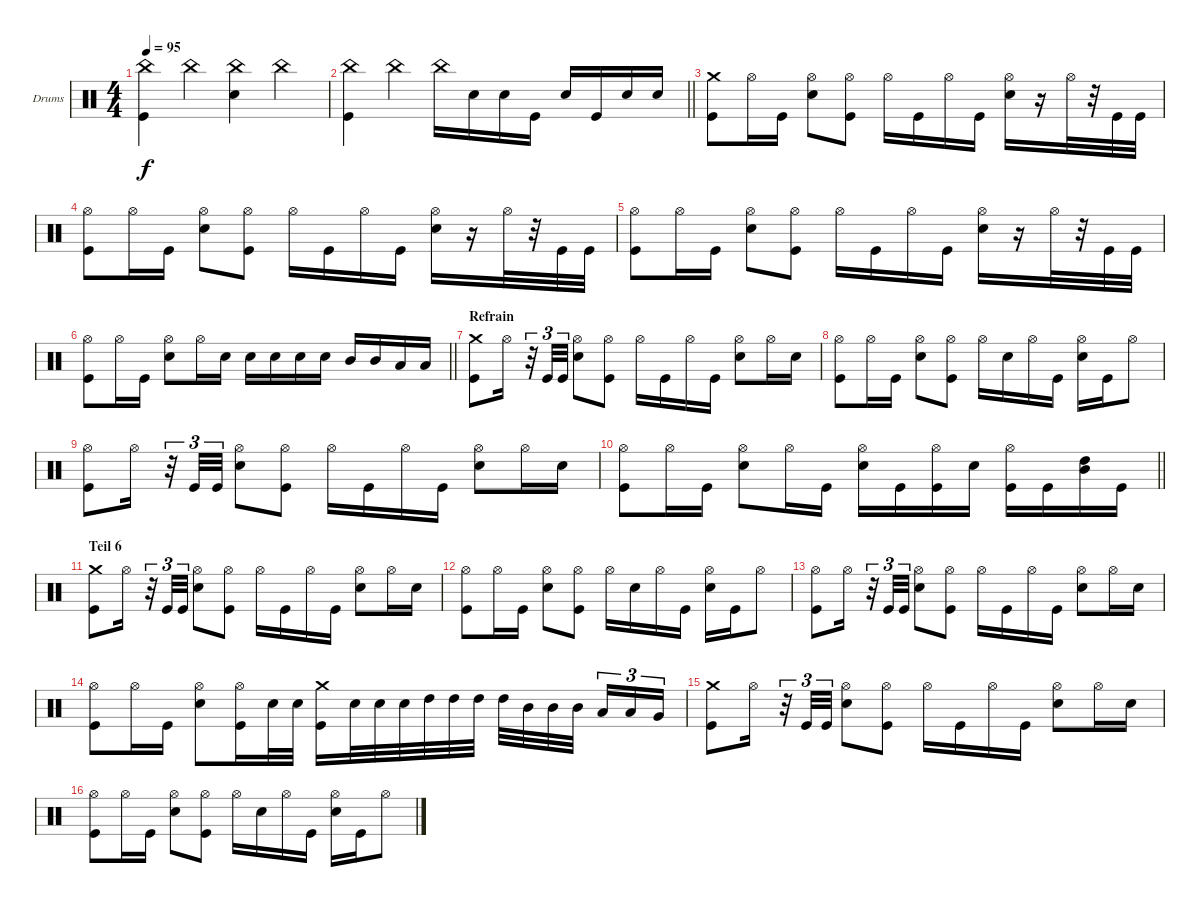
\bracketExtendMode groupsimilarinstruments
\firstSystemTrackNameOrientation horizontal
\otherSystemsTrackNameOrientation horizontal
\track ("Drumkit" "Drums") {instrument percussion}
\staff {score}
\articulation defaults
\ts (4 4)
\tempo 95
\clef neutral
\ks c
("China (hit)" "Kick (hit)").4{dy f} "China (hit)".4 ("China (hit)" "Snare (hit) 2").4 "China (hit)".4 |
\barLineRight lightlight
("China (hit)" "Kick (hit)").4 "China (hit)".4 "China (hit)".16 "Snare (hit) 2".16 "Snare (hit) 2".16 "Kick (hit)".16 "Snare (hit) 2".16 "Kick (hit)".16 "Snare (hit) 2".16 "Snare (hit) 2".16 |
("Crash medium (hit)" "Kick (hit)").8 "Hi-Hat (open)".16 "Kick (hit)".16 ("Hi-Hat (open)" "Snare (hit) 2").8 ("Hi-Hat (open)" "Kick (hit)").8 "Hi-Hat (open)".16 "Kick (hit)".16 "Hi-Hat (open)".16 "Kick (hit)".16 ("Hi-Hat (open)" "Snare (hit) 2").16 r.16 "Hi-Hat (open)".32 r.32 "Kick (hit)".32 "Kick (hit)".32 |
("Hi-Hat (open)" "Kick (hit)").8 "Hi-Hat (open)".16 "Kick (hit)".16 ("Hi-Hat (open)" "Snare (hit) 2").8 ("Hi-Hat (open)" "Kick (hit)").8 "Hi-Hat (open)".16 "Kick (hit)".16 "Hi-Hat (open)".16 "Kick (hit)".16 ("Hi-Hat (open)" "Snare (hit) 2").16 r.16 "Hi-Hat (open)".32 r.32 "Kick (hit)".32 "Kick (hit)".32 |
("Hi-Hat (open)" "Kick (hit)").8 "Hi-Hat (open)".16 "Kick (hit)".16 ("Hi-Hat (open)" "Snare (hit) 2").8 ("Hi-Hat (open)" "Kick (hit)").8 "Hi-Hat (open)".16 "Kick (hit)".16 "Hi-Hat (open)".16 "Kick (hit)".16 ("Hi-Hat (open)" "Snare (hit) 2").16 r.16 "Hi-Hat (open)".32 r.32 "Kick (hit)".32 "Kick (hit)".32 |
\barLineRight lightlight
("Hi-Hat (open)" "Kick (hit)").8 "Hi-Hat (open)".16 "Kick (hit)".16 ("Hi-Hat (open)" "Snare (hit) 2").8 "Hi-Hat (open)".16 "Snare (hit) 2".16 "Snare (hit) 2".16 "Snare (hit) 2".16 "Snare (hit) 2".16 "Snare (hit) 2".16 "Mid Tom (hit)".16 "Mid Tom (hit)".16 "Low Tom (hit)".16 "Low Tom (hit)".16 |
\section ("" "Refrain")
("Crash medium (hit)" "Kick (hit)").8 "Hi-Hat (open)".16 r.32{tu (3 2)} "Kick (hit)".32{tu (3 2)} "Kick (hit)".32{tu (3 2)} ("Hi-Hat (open)" "Snare (hit) 2").8 ("Hi-Hat (open)" "Kick (hit)").8 "Hi-Hat (open)".16 "Kick (hit)".16 "Hi-Hat (open)".16 "Kick (hit)".16 ("Hi-Hat (open)" "Snare (hit) 2").8 "Hi-Hat (open)".16 "Snare (hit) 2".16 |
("Hi-Hat (open)" "Kick (hit)").8 "Hi-Hat (open)".16 "Kick (hit)".16 ("Hi-Hat (open)" "Snare (hit) 2").8 ("Hi-Hat (open)" "Kick (hit)").8 "Hi-Hat (open)".16 "Snare (hit) 2".16 "Hi-Hat (open)".16 "Kick (hit)".16 ("Hi-Hat (open)" "Snare (hit) 2").16 "Kick (hit)".16 "Hi-Hat (open)".8 |
("Hi-Hat (open)" "Kick (hit)").8 "Hi-Hat (open)".16 r.32{tu (3 2)} "Kick (hit)".32{tu (3 2)} "Kick (hit)".32{tu (3 2)} ("Hi-Hat (open)" "Snare (hit) 2").8 ("Hi-Hat (open)" "Kick (hit)").8 "Hi-Hat (open)".16 "Kick (hit)".16 "Hi-Hat (open)".16 "Kick (hit)".16 ("Hi-Hat (open)" "Snare (hit) 2").8 "Hi-Hat (open)".16 "Snare (hit) 2".16 |
\barLineRight lightlight
("Hi-Hat (open)" "Kick (hit)").8 "Hi-Hat (open)".16 "Kick (hit)".16 ("Hi-Hat (open)" "Snare (hit) 2").8 "Hi-Hat (open)".16 "Kick (hit)".16 ("Hi-Hat (open)" "Snare (hit) 2").16 "Kick (hit)".16 ("Hi-Hat (open)" "Kick (hit)").16 "Snare (hit) 2".16 ("Hi-Hat (open)" "Kick (hit)").16 "Kick (hit)".16 ("High Tom (hit)" "Mid Tom (hit)").16 "Kick (hit)".16 |
\section ("" "Teil 6")
("Crash medium (hit)" "Kick (hit)").8 "Hi-Hat (open)".16 r.32{tu (3 2)} "Kick (hit)".32{tu (3 2)} "Kick (hit)".32{tu (3 2)} ("Hi-Hat (open)" "Snare (hit) 2").8 ("Hi-Hat (open)" "Kick (hit)").8 "Hi-Hat (open)".16 "Kick (hit)".16 "Hi-Hat (open)".16 "Kick (hit)".16 ("Hi-Hat (open)" "Snare (hit) 2").8 "Hi-Hat (open)".16 "Snare (hit) 2".16 |
("Hi-Hat (open)" "Kick (hit)").8 "Hi-Hat (open)".16 "Kick (hit)".16 ("Hi-Hat (open)" "Snare (hit) 2").8 ("Hi-Hat (open)" "Kick (hit)").8 "Hi-Hat (open)".16 "Snare (hit) 2".16 "Hi-Hat (open)".16 "Kick (hit)".16 ("Hi-Hat (open)" "Snare (hit) 2").16 "Kick (hit)".16 "Hi-Hat (open)".8 |
("Hi-Hat (open)" "Kick (hit)").8 "Hi-Hat (open)".16 r.32{tu (3 2)} "Kick (hit)".32{tu (3 2)} "Kick (hit)".32{tu (3 2)} ("Hi-Hat (open)" "Snare (hit) 2").8 ("Hi-Hat (open)" "Kick (hit)").8 "Hi-Hat (open)".16 "Kick (hit)".16 "Hi-Hat (open)".16 "Kick (hit)".16 ("Hi-Hat (open)" "Snare (hit) 2").8 "Hi-Hat (open)".16 "Snare (hit) 2".16 |
("Hi-Hat (open)" "Kick (hit)").8 "Hi-Hat (open)".16 "Kick (hit)".16 ("Hi-Hat (open)" "Snare (hit) 2").8 ("Hi-Hat (open)" "Kick (hit)").16 "Snare (hit) 2".32 "Snare (hit) 2".32 ("Crash medium (hit)" "Kick (hit)").16 "Snare (hit) 2".32 "Snare (hit) 2".32 "Snare (hit) 2".32 "High Tom (hit)".32 "High Tom (hit)".32 "High Tom (hit)".32 "High Tom (hit)".32 "Mid Tom (hit)".32 "Mid Tom (hit)".32 "Mid Tom (hit)".32 "Low Tom (hit)".16{tu (3 2)} "Low Tom (hit)".16{tu (3 2)} "Very Low Tom (hit)".16{tu (3 2)} |
("Crash medium (hit)" "Kick (hit)").8 "Hi-Hat (open)".16 r.32{tu (3 2)} "Kick (hit)".32{tu (3 2)} "Kick (hit)".32{tu (3 2)} ("Hi-Hat (open)" "Snare (hit) 2").8 ("Hi-Hat (open)" "Kick (hit)").8 "Hi-Hat (open)".16 "Kick (hit)".16 "Hi-Hat (open)".16 "Kick (hit)".16 ("Hi-Hat (open)" "Snare (hit) 2").8 "Hi-Hat (open)".16 "Snare (hit) 2".16 |
("Hi-Hat (open)" "Kick (hit)").8 "Hi-Hat (open)".16 "Kick (hit)".16 ("Hi-Hat (open)" "Snare (hit) 2").8 ("Hi-Hat (open)" "Kick (hit)").8 "Hi-Hat (open)".16 "Snare (hit) 2".16 "Hi-Hat (open)".16 "Kick (hit)".16 ("Hi-Hat (open)" "Snare (hit) 2").16 "Kick (hit)".16 "Hi-Hat (open)".8
